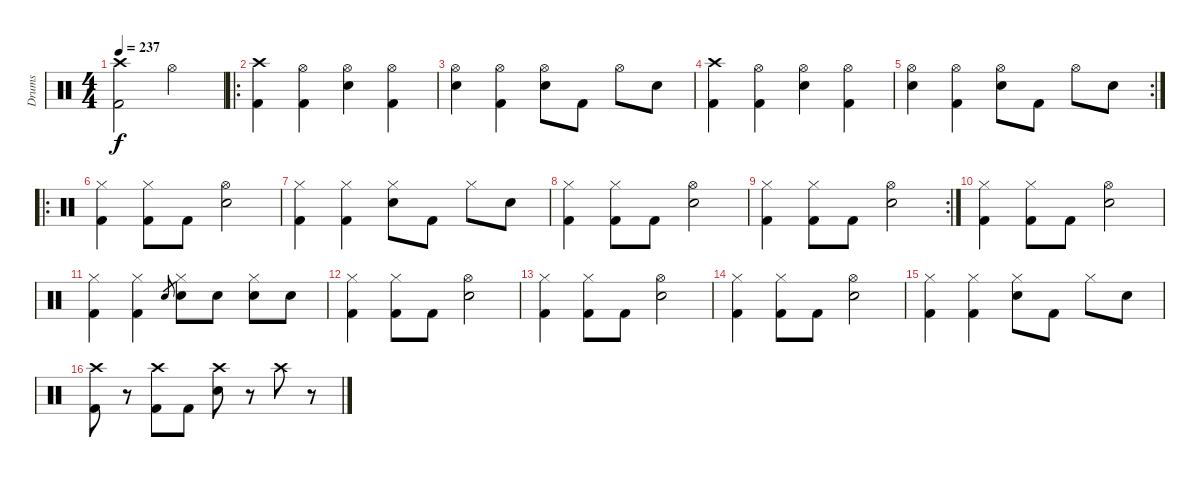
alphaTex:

\track ("Drums" "Drums") {instrument percussion}
\staff {score}
\articulation defaults
\ts (4 4)
\tempo 237
\clef neutral
\ks c
("Crash high (hit)" "Kick (hit) 2").2{dy f} "Hi-Hat (open)".2 |
\ro
("Crash high (hit)" "Kick (hit) 2").4 ("Hi-Hat (open)" "Kick (hit) 2").4 ("Hi-Hat (open)" "Snare (hit) 2").4 ("Hi-Hat (open)" "Kick (hit) 2").4 |
("Hi-Hat (open)" "Snare (hit) 2").4 ("Hi-Hat (open)" "Kick (hit) 2").4 ("Hi-Hat (open)" "Snare (hit) 2").8 "Kick (hit) 2".8 "Hi-Hat (open)".8 "Snare (hit) 2".8 |
("Crash high (hit)" "Kick (hit) 2").4 ("Hi-Hat (open)" "Kick (hit) 2").4 ("Hi-Hat (open)" "Snare (hit) 2").4 ("Hi-Hat (open)" "Kick (hit) 2").4 |
\rc 2
("Hi-Hat (open)" "Snare (hit) 2").4 ("Hi-Hat (open)" "Kick (hit) 2").4 ("Hi-Hat (open)" "Snare (hit) 2").8 "Kick (hit) 2".8 "Hi-Hat (open)".8 "Snare (hit) 2".8 |
\ro
("Hi-Hat (closed)" "Kick (hit) 2").4 ("Hi-Hat (closed)" "Kick (hit) 2").8 "Kick (hit) 2".8 ("Hi-Hat (open)" "Snare (hit) 2").2 |
("Hi-Hat (closed)" "Kick (hit) 2").4 ("Hi-Hat (closed)" "Kick (hit) 2").4 ("Hi-Hat (closed)" "Snare (hit) 2").8 "Kick (hit) 2".8 "Hi-Hat (closed)".8 "Snare (hit) 2".8 |
("Hi-Hat (closed)" "Kick (hit) 2").4 ("Hi-Hat (closed)" "Kick (hit) 2").8 "Kick (hit) 2".8 ("Hi-Hat (open)" "Snare (hit) 2").2 |
\rc 2
("Hi-Hat (closed)" "Kick (hit) 2").4 ("Hi-Hat (closed)" "Kick (hit) 2").8 "Kick (hit) 2".8 ("Hi-Hat (open)" "Snare (hit) 2").2 |
("Hi-Hat (closed)" "Kick (hit) 2").4 ("Hi-Hat (closed)" "Kick (hit) 2").8 "Kick (hit) 2".8 ("Hi-Hat (open)" "Snare (hit) 2").2 |
("Hi-Hat (closed)" "Kick (hit) 2").4 ("Hi-Hat (closed)" "Kick (hit) 2").4 "Snare (hit) 2".8{gr} ("Hi-Hat (closed)" "Snare (hit) 2").8 "Snare (hit) 2".8 ("Hi-Hat (closed)" "Snare (hit) 2").8 "Snare (hit) 2".8 |
("Hi-Hat (closed)" "Kick (hit) 2").4 ("Hi-Hat (closed)" "Kick (hit) 2").8 "Kick (hit) 2".8 ("Hi-Hat (open)" "Snare (hit) 2").2 |
("Hi-Hat (closed)" "Kick (hit) 2").4 ("Hi-Hat (closed)" "Kick (hit) 2").8 "Kick (hit) 2".8 ("Hi-Hat (open)" "Snare (hit) 2").2 |
("Hi-Hat (closed)" "Kick (hit) 2").4 ("Hi-Hat (closed)" "Kick (hit) 2").8 "Kick (hit) 2".8 ("Hi-Hat (open)" "Snare (hit) 2").2 |
("Hi-Hat (closed)" "Kick (hit) 2").4 ("Hi-Hat (closed)" "Kick (hit) 2").4 ("Hi-Hat (closed)" "Snare (hit) 2").8 "Kick (hit) 2".8 "Hi-Hat (closed)".8 "Snare (hit) 2".8 |
("Crash high (hit)" "Kick (hit) 2").8 r.8 ("Crash high (hit)" "Kick (hit) 2").8 "Kick (hit) 2".8 ("Crash high (hit)" "Snare (hit) 2").8 r.8 "Crash high (hit)".8 r.8
